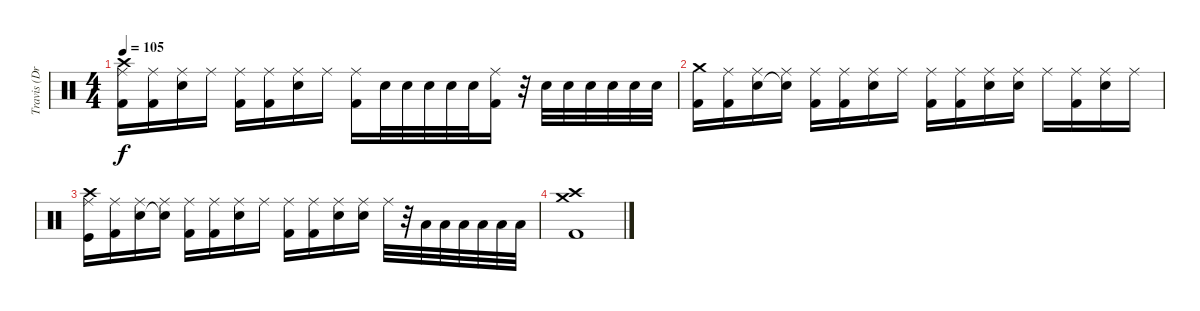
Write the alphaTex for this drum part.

\track ("Travis (Drums)" "Travis (Dr") {instrument percussion}
\staff {score}
\articulation defaults
\ts (4 4)
\tempo 105
\clef neutral
\ks c
("Ride (middle)" "Kick (hit) 2" "Crash high (hit)").16{dy f} ("Ride (middle)" "Kick (hit) 2").16 ("Ride (middle)" "Electric Snare (hit)").16 "Ride (middle)".16 ("Ride (middle)" "Kick (hit) 2").16 ("Ride (middle)" "Kick (hit) 2").16 ("Ride (middle)" "Electric Snare (hit)").16 "Ride (middle)".16 ("Ride (middle)" "Kick (hit) 2").16 "Electric Snare (hit)".32 "Electric Snare (hit)".32 "Electric Snare (hit)".32 "Electric Snare (hit)".32 "Electric Snare (hit)".32 ("Ride (middle)" "Kick (hit) 2").16 r.32 "Electric Snare (hit)".32 "Electric Snare (hit)".32 "Electric Snare (hit)".32 "Electric Snare (hit)".32 "Electric Snare (hit)".32 "Electric Snare (hit)".32 |
("Kick (hit) 2" "Crash medium (hit)").16 ("Ride (middle)" "Kick (hit) 2").16 ("Ride (middle)" "Electric Snare (hit)").16 ("Ride (middle)" "Snare (hit)"{t}).16 ("Ride (middle)" "Kick (hit) 2").16 ("Ride (middle)" "Kick (hit) 2").16 ("Ride (middle)" "Electric Snare (hit)").16 "Ride (middle)".16 ("Ride (middle)" "Kick (hit) 2").16 ("Ride (middle)" "Kick (hit) 2").16 ("Ride (middle)" "Electric Snare (hit)").16 ("Ride (middle)" "Electric Snare (hit)").16 "Ride (middle)".16 ("Ride (middle)" "Kick (hit) 2").16 ("Ride (middle)" "Electric Snare (hit)").16 "Ride (middle)".16 |
("Ride (middle)" "Kick (hit)" "Crash high (hit)").16 ("Ride (middle)" "Kick (hit) 2").16 ("Ride (middle)" "Electric Snare (hit)").16 ("Ride (middle)" "Snare (hit)"{t}).16 ("Ride (middle)" "Kick (hit) 2").16 ("Ride (middle)" "Kick (hit) 2").16 ("Ride (middle)" "Electric Snare (hit)").16 "Ride (middle)".16 ("Ride (middle)" "Kick (hit) 2").16 ("Ride (middle)" "Kick (hit) 2").16 ("Ride (middle)" "Electric Snare (hit)").16 ("Ride (middle)" "Electric Snare (hit)").16 "Ride (middle)".32 r.32 "Low Tom (hit)".32 "Low Tom (hit)".32 "Low Tom (hit)".32 "Low Floor Tom (hit)".32 "Low Floor Tom (hit)".32 "Low Floor Tom (hit)".32 |
("Crash high (hit)" "Crash medium (hit)" "Kick (hit) 2").1
